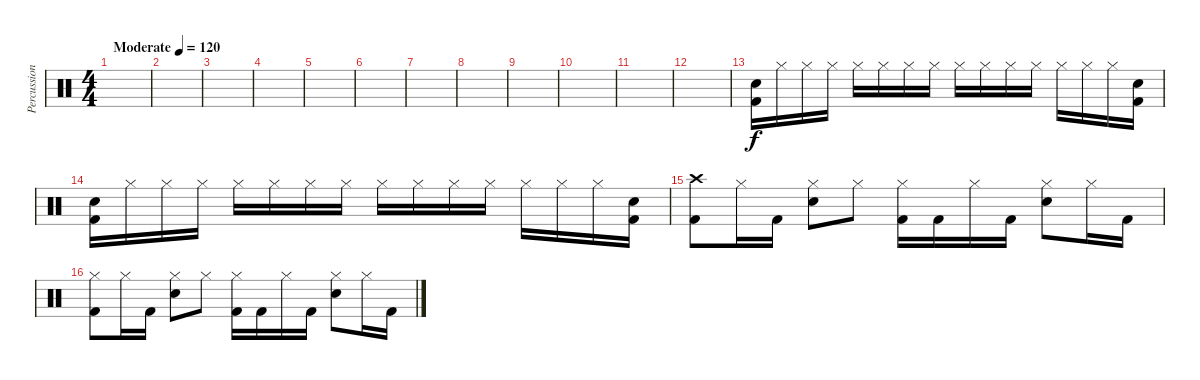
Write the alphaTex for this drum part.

\track ("Percussion" "Percussion") {instrument percussion}
\staff {score}
\articulation defaults
\ts (4 4)
\tempo (120 "Moderate")
\clef neutral
\ks c
|
|
|
|
|
|
|
|
|
|
|
|
("Kick (hit) 2" "Snare (hit) 2").16 "Hi-Hat (closed)".16 "Hi-Hat (closed)".16 "Hi-Hat (closed)".16 "Hi-Hat (closed)".16 "Hi-Hat (closed)".16 "Hi-Hat (closed)".16 "Hi-Hat (closed)".16 "Hi-Hat (closed)".16 "Hi-Hat (closed)".16 "Hi-Hat (closed)".16 "Hi-Hat (closed)".16 "Hi-Hat (closed)".16 "Hi-Hat (closed)".16 "Hi-Hat (closed)".16 ("Kick (hit) 2" "Snare (hit) 2").16 |
("Kick (hit) 2" "Snare (hit) 2").16 "Hi-Hat (closed)".16 "Hi-Hat (closed)".16 "Hi-Hat (closed)".16 "Hi-Hat (closed)".16 "Hi-Hat (closed)".16 "Hi-Hat (closed)".16 "Hi-Hat (closed)".16 "Hi-Hat (closed)".16 "Hi-Hat (closed)".16 "Hi-Hat (closed)".16 "Hi-Hat (closed)".16 "Hi-Hat (closed)".16 "Hi-Hat (closed)".16 "Hi-Hat (closed)".16 ("Kick (hit) 2" "Snare (hit) 2").16 |
("Kick (hit) 2" "Crash high (hit)").8 "Hi-Hat (closed)".16 "Kick (hit) 2".16 ("Snare (hit) 2" "Hi-Hat (closed)").8 "Hi-Hat (closed)".8 ("Kick (hit) 2" "Hi-Hat (closed)").16 "Kick (hit) 2".16 "Hi-Hat (closed)".16 "Kick (hit) 2".16 ("Snare (hit) 2" "Hi-Hat (closed)").8 "Hi-Hat (closed)".16 "Kick (hit) 2".16 |
("Kick (hit) 2" "Hi-Hat (closed)").8 "Hi-Hat (closed)".16 "Kick (hit) 2".16 ("Snare (hit) 2" "Hi-Hat (closed)").8 "Hi-Hat (closed)".8 ("Kick (hit) 2" "Hi-Hat (closed)").16 "Kick (hit) 2".16 "Hi-Hat (closed)".16 "Kick (hit) 2".16 ("Snare (hit) 2" "Hi-Hat (closed)").8 "Hi-Hat (closed)".16 "Kick (hit) 2".16
